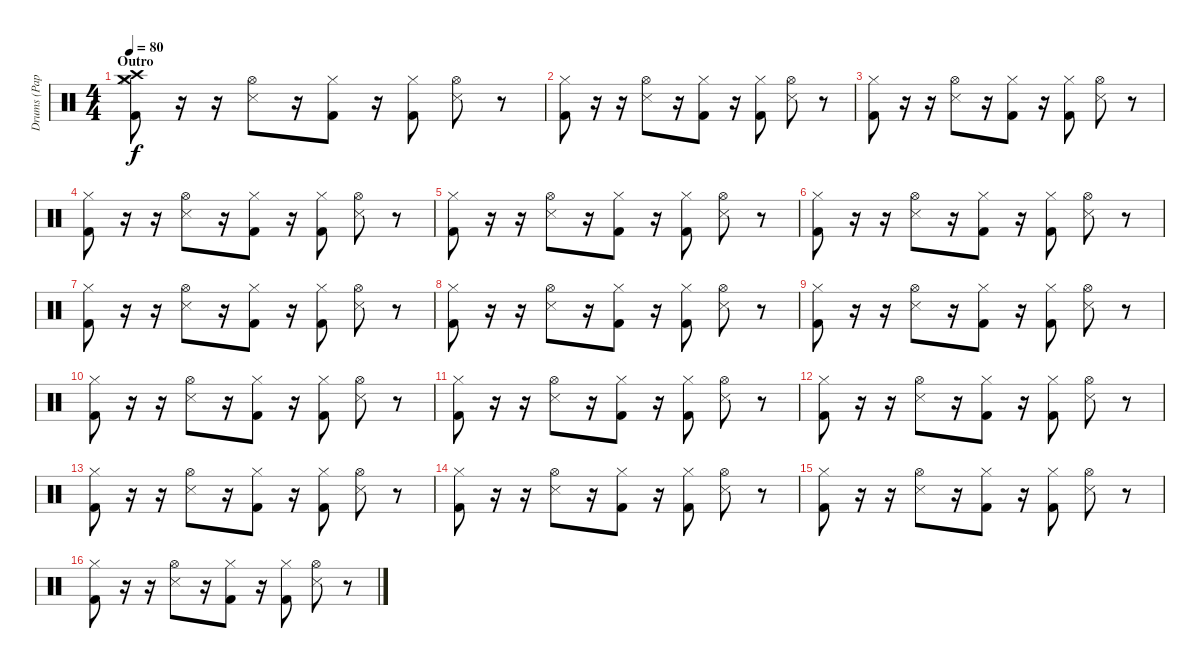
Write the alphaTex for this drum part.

\track ("Drums (Pappas)" "Drums (Pap") {instrument percussion}
\staff {score}
\articulation defaults
\ts (4 4)
\section ("" "Outro")
\tempo 80
\clef neutral
\ks c
("Crash medium (hit)" "Crash high (hit)" "Hi-Hat (closed)" "Kick (hit) 2").8{dy f} r.16 r.16 ("Hi-Hat (open)" "Snare (side stick) 3").8 r.16 ("Hi-Hat (closed)" "Kick (hit) 2").8 r.16 ("Hi-Hat (closed)" "Kick (hit) 2").8 ("Hi-Hat (open)" "Snare (side stick) 3").8 r.8 |
("Hi-Hat (closed)" "Kick (hit) 2").8 r.16 r.16 ("Hi-Hat (open)" "Snare (side stick) 3").8 r.16 ("Hi-Hat (closed)" "Kick (hit) 2").8 r.16 ("Hi-Hat (closed)" "Kick (hit) 2").8 ("Hi-Hat (open)" "Snare (side stick) 3").8 r.8 |
("Hi-Hat (closed)" "Kick (hit) 2").8 r.16 r.16 ("Hi-Hat (open)" "Snare (side stick) 3").8 r.16 ("Hi-Hat (closed)" "Kick (hit) 2").8 r.16 ("Hi-Hat (closed)" "Kick (hit) 2").8 ("Hi-Hat (open)" "Snare (side stick) 3").8 r.8 |
("Hi-Hat (closed)" "Kick (hit) 2").8 r.16 r.16 ("Hi-Hat (open)" "Snare (side stick) 3").8 r.16 ("Hi-Hat (closed)" "Kick (hit) 2").8 r.16 ("Hi-Hat (closed)" "Kick (hit) 2").8 ("Hi-Hat (open)" "Snare (side stick) 3").8 r.8 |
("Hi-Hat (closed)" "Kick (hit) 2").8 r.16 r.16 ("Hi-Hat (open)" "Snare (side stick) 3").8 r.16 ("Hi-Hat (closed)" "Kick (hit) 2").8 r.16 ("Hi-Hat (closed)" "Kick (hit) 2").8 ("Hi-Hat (open)" "Snare (side stick) 3").8 r.8 |
("Hi-Hat (closed)" "Kick (hit) 2").8 r.16 r.16 ("Hi-Hat (open)" "Snare (side stick) 3").8 r.16 ("Hi-Hat (closed)" "Kick (hit) 2").8 r.16 ("Hi-Hat (closed)" "Kick (hit) 2").8 ("Hi-Hat (open)" "Snare (side stick) 3").8 r.8 |
("Hi-Hat (closed)" "Kick (hit) 2").8 r.16 r.16 ("Hi-Hat (open)" "Snare (side stick) 3").8 r.16 ("Hi-Hat (closed)" "Kick (hit) 2").8 r.16 ("Hi-Hat (closed)" "Kick (hit) 2").8 ("Hi-Hat (open)" "Snare (side stick) 3").8 r.8 |
("Hi-Hat (closed)" "Kick (hit) 2").8 r.16 r.16 ("Hi-Hat (open)" "Snare (side stick) 3").8 r.16 ("Hi-Hat (closed)" "Kick (hit) 2").8 r.16 ("Hi-Hat (closed)" "Kick (hit) 2").8 ("Hi-Hat (open)" "Snare (side stick) 3").8 r.8 |
("Hi-Hat (closed)" "Kick (hit) 2").8 r.16 r.16 ("Hi-Hat (open)" "Snare (side stick) 3").8 r.16 ("Hi-Hat (closed)" "Kick (hit) 2").8 r.16 ("Hi-Hat (closed)" "Kick (hit) 2").8 ("Hi-Hat (open)" "Snare (side stick) 3").8 r.8 |
("Hi-Hat (closed)" "Kick (hit) 2").8 r.16 r.16 ("Hi-Hat (open)" "Snare (side stick) 3").8 r.16 ("Hi-Hat (closed)" "Kick (hit) 2").8 r.16 ("Hi-Hat (closed)" "Kick (hit) 2").8 ("Hi-Hat (open)" "Snare (side stick) 3").8 r.8 |
("Hi-Hat (closed)" "Kick (hit) 2").8 r.16 r.16 ("Hi-Hat (open)" "Snare (side stick) 3").8 r.16 ("Hi-Hat (closed)" "Kick (hit) 2").8 r.16 ("Hi-Hat (closed)" "Kick (hit) 2").8 ("Hi-Hat (open)" "Snare (side stick) 3").8 r.8 |
("Hi-Hat (closed)" "Kick (hit) 2").8 r.16 r.16 ("Hi-Hat (open)" "Snare (side stick) 3").8 r.16 ("Hi-Hat (closed)" "Kick (hit) 2").8 r.16 ("Hi-Hat (closed)" "Kick (hit) 2").8 ("Hi-Hat (open)" "Snare (side stick) 3").8 r.8 |
("Hi-Hat (closed)" "Kick (hit) 2").8 r.16 r.16 ("Hi-Hat (open)" "Snare (side stick) 3").8 r.16 ("Hi-Hat (closed)" "Kick (hit) 2").8 r.16 ("Hi-Hat (closed)" "Kick (hit) 2").8 ("Hi-Hat (open)" "Snare (side stick) 3").8 r.8 |
("Hi-Hat (closed)" "Kick (hit) 2").8 r.16 r.16 ("Hi-Hat (open)" "Snare (side stick) 3").8 r.16 ("Hi-Hat (closed)" "Kick (hit) 2").8 r.16 ("Hi-Hat (closed)" "Kick (hit) 2").8 ("Hi-Hat (open)" "Snare (side stick) 3").8 r.8 |
("Hi-Hat (closed)" "Kick (hit) 2").8 r.16 r.16 ("Hi-Hat (open)" "Snare (side stick) 3").8 r.16 ("Hi-Hat (closed)" "Kick (hit) 2").8 r.16 ("Hi-Hat (closed)" "Kick (hit) 2").8 ("Hi-Hat (open)" "Snare (side stick) 3").8 r.8 |
("Hi-Hat (closed)" "Kick (hit) 2").8 r.16 r.16 ("Hi-Hat (open)" "Snare (side stick) 3").8 r.16 ("Hi-Hat (closed)" "Kick (hit) 2").8 r.16 ("Hi-Hat (closed)" "Kick (hit) 2").8 ("Hi-Hat (open)" "Snare (side stick) 3").8 r.8
